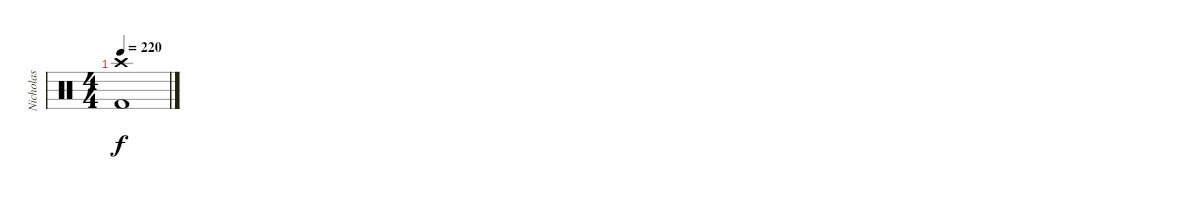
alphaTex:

\track ("Nicholas" "Nicholas") {instrument percussion}
\staff {score}
\articulation defaults
\ts (4 4)
\tempo 220
\clef neutral
\ks c
("Kick (hit) 2" "Crash high (hit)").1{dy f}
